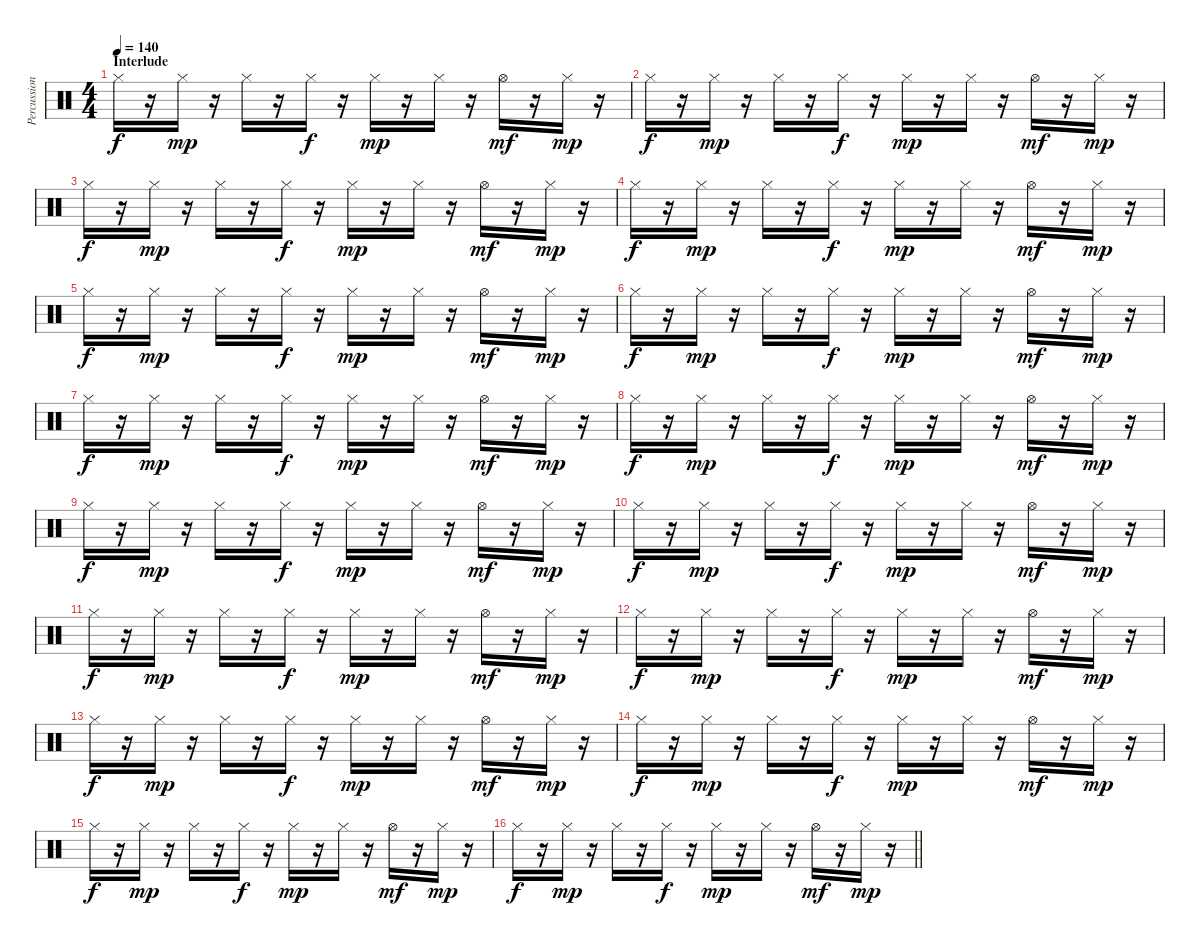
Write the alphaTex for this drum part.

\track ("Percussions" "Percussion") {instrument percussion}
\staff {score}
\articulation defaults
\ts (4 4)
\section ("" "Interlude")
\tempo 140
\clef neutral
\ks c "Hi-Hat (closed)".16{dy f}
r.16 "Hi-Hat (closed)".16{dy mp} r.16 "Hi-Hat (closed)".16 r.16 "Hi-Hat (closed)".16{dy f} r.16 "Hi-Hat (closed)".16{dy mp} r.16 "Hi-Hat (closed)".16 r.16 "Hi-Hat (open)".16{dy mf} r.16 "Hi-Hat (closed)".16{dy mp} r.16 |
"Hi-Hat (closed)".16{dy f} r.16 "Hi-Hat (closed)".16{dy mp} r.16 "Hi-Hat (closed)".16 r.16 "Hi-Hat (closed)".16{dy f} r.16 "Hi-Hat (closed)".16{dy mp} r.16 "Hi-Hat (closed)".16 r.16 "Hi-Hat (open)".16{dy mf} r.16 "Hi-Hat (closed)".16{dy mp} r.16 |
"Hi-Hat (closed)".16{dy f} r.16 "Hi-Hat (closed)".16{dy mp} r.16 "Hi-Hat (closed)".16 r.16 "Hi-Hat (closed)".16{dy f} r.16 "Hi-Hat (closed)".16{dy mp} r.16 "Hi-Hat (closed)".16 r.16 "Hi-Hat (open)".16{dy mf} r.16 "Hi-Hat (closed)".16{dy mp} r.16 |
"Hi-Hat (closed)".16{dy f} r.16 "Hi-Hat (closed)".16{dy mp} r.16 "Hi-Hat (closed)".16 r.16 "Hi-Hat (closed)".16{dy f} r.16 "Hi-Hat (closed)".16{dy mp} r.16 "Hi-Hat (closed)".16 r.16 "Hi-Hat (open)".16{dy mf} r.16 "Hi-Hat (closed)".16{dy mp} r.16 |
"Hi-Hat (closed)".16{dy f} r.16 "Hi-Hat (closed)".16{dy mp} r.16 "Hi-Hat (closed)".16 r.16 "Hi-Hat (closed)".16{dy f} r.16 "Hi-Hat (closed)".16{dy mp} r.16 "Hi-Hat (closed)".16 r.16 "Hi-Hat (open)".16{dy mf} r.16 "Hi-Hat (closed)".16{dy mp} r.16 |
"Hi-Hat (closed)".16{dy f} r.16 "Hi-Hat (closed)".16{dy mp} r.16 "Hi-Hat (closed)".16 r.16 "Hi-Hat (closed)".16{dy f} r.16 "Hi-Hat (closed)".16{dy mp} r.16 "Hi-Hat (closed)".16 r.16 "Hi-Hat (open)".16{dy mf} r.16 "Hi-Hat (closed)".16{dy mp} r.16 |
"Hi-Hat (closed)".16{dy f} r.16 "Hi-Hat (closed)".16{dy mp} r.16 "Hi-Hat (closed)".16 r.16 "Hi-Hat (closed)".16{dy f} r.16 "Hi-Hat (closed)".16{dy mp} r.16 "Hi-Hat (closed)".16 r.16 "Hi-Hat (open)".16{dy mf} r.16 "Hi-Hat (closed)".16{dy mp} r.16 |
"Hi-Hat (closed)".16{dy f} r.16 "Hi-Hat (closed)".16{dy mp} r.16 "Hi-Hat (closed)".16 r.16 "Hi-Hat (closed)".16{dy f} r.16 "Hi-Hat (closed)".16{dy mp} r.16 "Hi-Hat (closed)".16 r.16 "Hi-Hat (open)".16{dy mf} r.16 "Hi-Hat (closed)".16{dy mp} r.16 |
"Hi-Hat (closed)".16{dy f} r.16 "Hi-Hat (closed)".16{dy mp} r.16 "Hi-Hat (closed)".16 r.16 "Hi-Hat (closed)".16{dy f} r.16 "Hi-Hat (closed)".16{dy mp} r.16 "Hi-Hat (closed)".16 r.16 "Hi-Hat (open)".16{dy mf} r.16 "Hi-Hat (closed)".16{dy mp} r.16 |
"Hi-Hat (closed)".16{dy f} r.16 "Hi-Hat (closed)".16{dy mp} r.16 "Hi-Hat (closed)".16 r.16 "Hi-Hat (closed)".16{dy f} r.16 "Hi-Hat (closed)".16{dy mp} r.16 "Hi-Hat (closed)".16 r.16 "Hi-Hat (open)".16{dy mf} r.16 "Hi-Hat (closed)".16{dy mp} r.16 |
"Hi-Hat (closed)".16{dy f} r.16 "Hi-Hat (closed)".16{dy mp} r.16 "Hi-Hat (closed)".16 r.16 "Hi-Hat (closed)".16{dy f} r.16 "Hi-Hat (closed)".16{dy mp} r.16 "Hi-Hat (closed)".16 r.16 "Hi-Hat (open)".16{dy mf} r.16 "Hi-Hat (closed)".16{dy mp} r.16 |
"Hi-Hat (closed)".16{dy f} r.16 "Hi-Hat (closed)".16{dy mp} r.16 "Hi-Hat (closed)".16 r.16 "Hi-Hat (closed)".16{dy f} r.16 "Hi-Hat (closed)".16{dy mp} r.16 "Hi-Hat (closed)".16 r.16 "Hi-Hat (open)".16{dy mf} r.16 "Hi-Hat (closed)".16{dy mp} r.16 |
"Hi-Hat (closed)".16{dy f} r.16 "Hi-Hat (closed)".16{dy mp} r.16 "Hi-Hat (closed)".16 r.16 "Hi-Hat (closed)".16{dy f} r.16 "Hi-Hat (closed)".16{dy mp} r.16 "Hi-Hat (closed)".16 r.16 "Hi-Hat (open)".16{dy mf} r.16 "Hi-Hat (closed)".16{dy mp} r.16 |
"Hi-Hat (closed)".16{dy f} r.16 "Hi-Hat (closed)".16{dy mp} r.16 "Hi-Hat (closed)".16 r.16 "Hi-Hat (closed)".16{dy f} r.16 "Hi-Hat (closed)".16{dy mp} r.16 "Hi-Hat (closed)".16 r.16 "Hi-Hat (open)".16{dy mf} r.16 "Hi-Hat (closed)".16{dy mp} r.16 |
"Hi-Hat (closed)".16{dy f} r.16 "Hi-Hat (closed)".16{dy mp} r.16 "Hi-Hat (closed)".16 r.16 "Hi-Hat (closed)".16{dy f} r.16 "Hi-Hat (closed)".16{dy mp} r.16 "Hi-Hat (closed)".16 r.16 "Hi-Hat (open)".16{dy mf} r.16 "Hi-Hat (closed)".16{dy mp} r.16 |
\barLineRight lightlight "Hi-Hat (closed)".16{dy f}
r.16 "Hi-Hat (closed)".16{dy mp} r.16 "Hi-Hat (closed)".16 r.16 "Hi-Hat (closed)".16{dy f} r.16 "Hi-Hat (closed)".16{dy mp} r.16 "Hi-Hat (closed)".16 r.16 "Hi-Hat (open)".16{dy mf} r.16 "Hi-Hat (closed)".16{dy mp} r.16
